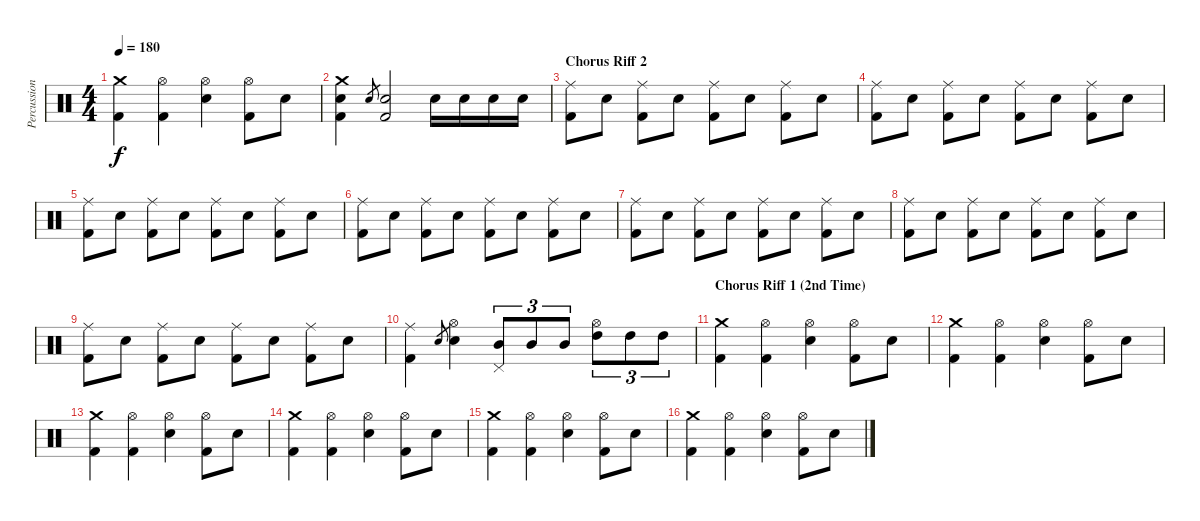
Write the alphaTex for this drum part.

\track ("Percussion" "Percussion") {instrument percussion}
\staff {score}
\articulation defaults
\ts (4 4)
\tempo 180
\clef neutral
\ks c
("Crash medium (hit)" "Kick (hit) 2").4{dy f} ("Hi-Hat (open)" "Kick (hit) 2").4 ("Hi-Hat (open)" "Electric Snare (hit)").4 ("Hi-Hat (open)" "Kick (hit) 2").8 "Electric Snare (hit)".8 |
("Crash medium (hit)" "Electric Snare (hit)" "Kick (hit) 2").4 "Electric Snare (hit)".8{gr} ("Electric Snare (hit)" "Kick (hit) 2").2 "Electric Snare (hit)".16 "Electric Snare (hit)".16 "Electric Snare (hit)".16 "Electric Snare (hit)".16 |
\section ("" "Chorus Riff 2")
("Ride (middle)" "Kick (hit) 2").8 "Electric Snare (hit)".8 ("Ride (middle)" "Kick (hit) 2").8 "Electric Snare (hit)".8 ("Ride (middle)" "Kick (hit) 2").8 "Electric Snare (hit)".8 ("Ride (middle)" "Kick (hit) 2").8 "Electric Snare (hit)".8 |
("Ride (middle)" "Kick (hit) 2").8 "Electric Snare (hit)".8 ("Ride (middle)" "Kick (hit) 2").8 "Electric Snare (hit)".8 ("Ride (middle)" "Kick (hit) 2").8 "Electric Snare (hit)".8 ("Ride (middle)" "Kick (hit) 2").8 "Electric Snare (hit)".8 |
("Ride (middle)" "Kick (hit) 2").8 "Electric Snare (hit)".8 ("Ride (middle)" "Kick (hit) 2").8 "Electric Snare (hit)".8 ("Ride (middle)" "Kick (hit) 2").8 "Electric Snare (hit)".8 ("Ride (middle)" "Kick (hit) 2").8 "Electric Snare (hit)".8 |
("Ride (middle)" "Kick (hit) 2").8 "Electric Snare (hit)".8 ("Ride (middle)" "Kick (hit) 2").8 "Electric Snare (hit)".8 ("Ride (middle)" "Kick (hit) 2").8 "Electric Snare (hit)".8 ("Ride (middle)" "Kick (hit) 2").8 "Electric Snare (hit)".8 |
("Ride (middle)" "Kick (hit) 2").8 "Electric Snare (hit)".8 ("Ride (middle)" "Kick (hit) 2").8 "Electric Snare (hit)".8 ("Ride (middle)" "Kick (hit) 2").8 "Electric Snare (hit)".8 ("Ride (middle)" "Kick (hit) 2").8 "Electric Snare (hit)".8 |
("Ride (middle)" "Kick (hit) 2").8 "Electric Snare (hit)".8 ("Ride (middle)" "Kick (hit) 2").8 "Electric Snare (hit)".8 ("Ride (middle)" "Kick (hit) 2").8 "Electric Snare (hit)".8 ("Ride (middle)" "Kick (hit) 2").8 "Electric Snare (hit)".8 |
("Ride (middle)" "Kick (hit) 2").8 "Electric Snare (hit)".8 ("Ride (middle)" "Kick (hit) 2").8 "Electric Snare (hit)".8 ("Ride (middle)" "Kick (hit) 2").8 "Electric Snare (hit)".8 ("Ride (middle)" "Kick (hit) 2").8 "Electric Snare (hit)".8 |
("Ride (middle)" "Kick (hit) 2").4 "Electric Snare (hit)".8{gr} ("Hi-Hat (open)" "Electric Snare (hit)").4 ("Pedal Hi-Hat (hit)" "Mid Tom (hit)").8{tu (3 2)} "Mid Tom (hit)".8{tu (3 2)} "Mid Tom (hit)".8{tu (3 2)} ("Hi-Hat (open)" "High Tom (hit)").8{tu (3 2)} "High Tom (hit)".8{tu (3 2)} "High Tom (hit)".8{tu (3 2)} |
\section ("" "Chorus Riff 1 (2nd Time)")
("Crash medium (hit)" "Kick (hit) 2").4 ("Hi-Hat (open)" "Kick (hit) 2").4 ("Hi-Hat (open)" "Electric Snare (hit)").4 ("Hi-Hat (open)" "Kick (hit) 2").8 "Electric Snare (hit)".8 |
("Crash medium (hit)" "Kick (hit) 2").4 ("Hi-Hat (open)" "Kick (hit) 2").4 ("Hi-Hat (open)" "Electric Snare (hit)").4 ("Hi-Hat (open)" "Kick (hit) 2").8 "Electric Snare (hit)".8 |
("Crash medium (hit)" "Kick (hit) 2").4 ("Hi-Hat (open)" "Kick (hit) 2").4 ("Hi-Hat (open)" "Electric Snare (hit)").4 ("Hi-Hat (open)" "Kick (hit) 2").8 "Electric Snare (hit)".8 |
("Crash medium (hit)" "Kick (hit) 2").4 ("Hi-Hat (open)" "Kick (hit) 2").4 ("Hi-Hat (open)" "Electric Snare (hit)").4 ("Hi-Hat (open)" "Kick (hit) 2").8 "Electric Snare (hit)".8 |
("Crash medium (hit)" "Kick (hit) 2").4 ("Hi-Hat (open)" "Kick (hit) 2").4 ("Hi-Hat (open)" "Electric Snare (hit)").4 ("Hi-Hat (open)" "Kick (hit) 2").8 "Electric Snare (hit)".8 |
("Crash medium (hit)" "Kick (hit) 2").4 ("Hi-Hat (open)" "Kick (hit) 2").4 ("Hi-Hat (open)" "Electric Snare (hit)").4 ("Hi-Hat (open)" "Kick (hit) 2").8 "Electric Snare (hit)".8
